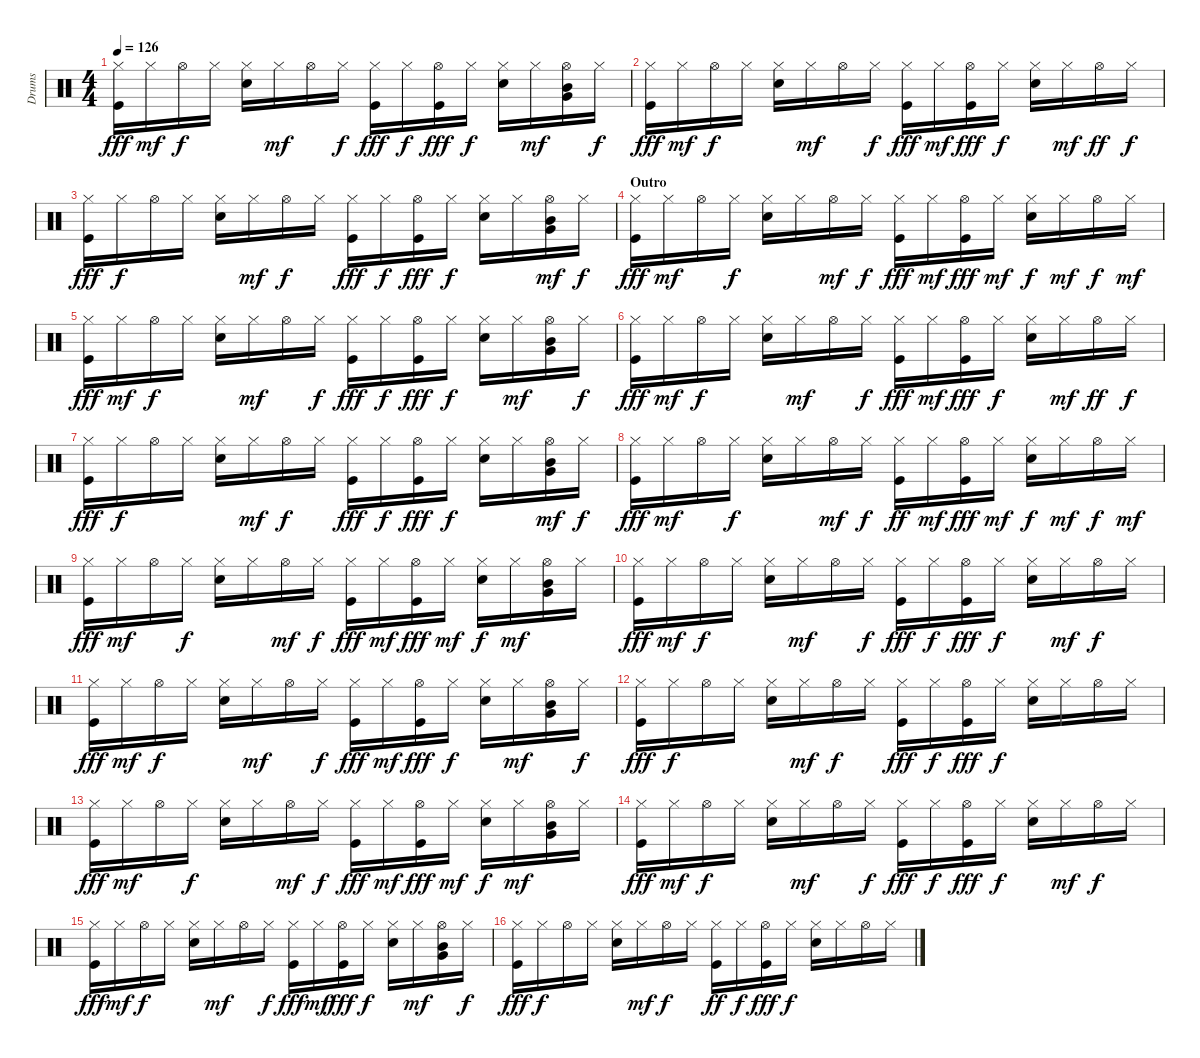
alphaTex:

\track ("Drums" "Drums") {instrument percussion}
\staff {score}
\articulation defaults
\ts (4 4)
\tempo 126
\clef neutral
\ks c
("Kick (hit)" "Hi-Hat (closed)").16{dy fff} "Hi-Hat (closed)".16{dy mf} "Hi-Hat (open)".16{dy f} "Hi-Hat (closed)".16 ("Electric Snare (hit)" "Hi-Hat (closed)").16 "Hi-Hat (closed)".16{dy mf} "Hi-Hat (open)".16 "Hi-Hat (closed)".16{dy f} ("Kick (hit)" "Hi-Hat (closed)").16{dy fff} "Hi-Hat (closed)".16{dy f} ("Kick (hit)" "Hi-Hat (open)").16{dy fff} "Hi-Hat (closed)".16{dy f} ("Electric Snare (hit)" "Hi-Hat (closed)").16 "Hi-Hat (closed)".16{dy mf} ("Very Low Tom (hit)" "Hi-Hat (open)" "Mid Tom (hit)").16 "Hi-Hat (closed)".16{dy f} |
("Kick (hit)" "Hi-Hat (closed)").16{dy fff} "Hi-Hat (closed)".16{dy mf} "Hi-Hat (open)".16{dy f} "Hi-Hat (closed)".16 ("Electric Snare (hit)" "Hi-Hat (closed)").16 "Hi-Hat (closed)".16{dy mf} "Hi-Hat (open)".16 "Hi-Hat (closed)".16{dy f} ("Kick (hit)" "Hi-Hat (closed)").16{dy fff} "Hi-Hat (closed)".16{dy mf} ("Kick (hit)" "Hi-Hat (open)").16{dy fff} "Hi-Hat (closed)".16{dy f} ("Electric Snare (hit)" "Hi-Hat (closed)").16 "Hi-Hat (closed)".16{dy mf} "Hi-Hat (open)".16{dy ff} "Hi-Hat (closed)".16{dy f} |
("Kick (hit)" "Hi-Hat (closed)").16{dy fff} "Hi-Hat (closed)".16{dy f} "Hi-Hat (open)".16 "Hi-Hat (closed)".16 ("Electric Snare (hit)" "Hi-Hat (closed)").16 "Hi-Hat (closed)".16{dy mf} "Hi-Hat (open)".16{dy f} "Hi-Hat (closed)".16 ("Kick (hit)" "Hi-Hat (closed)").16{dy fff} "Hi-Hat (closed)".16{dy f} ("Kick (hit)" "Hi-Hat (open)").16{dy fff} "Hi-Hat (closed)".16{dy f} ("Electric Snare (hit)" "Hi-Hat (closed)").16 "Hi-Hat (closed)".16 ("Very Low Tom (hit)" "Hi-Hat (open)" "Mid Tom (hit)").16{dy mf} "Hi-Hat (closed)".16{dy f} |
\section ("" "Outro")
("Kick (hit)" "Hi-Hat (closed)").16{dy fff} "Hi-Hat (closed)".16{dy mf} "Hi-Hat (open)".16 "Hi-Hat (closed)".16{dy f} ("Electric Snare (hit)" "Hi-Hat (closed)").16 "Hi-Hat (closed)".16 "Hi-Hat (open)".16{dy mf} "Hi-Hat (closed)".16{dy f} ("Kick (hit)" "Hi-Hat (closed)").16{dy fff} "Hi-Hat (closed)".16{dy mf} ("Kick (hit)" "Hi-Hat (open)").16{dy fff} "Hi-Hat (closed)".16{dy mf} ("Electric Snare (hit)" "Hi-Hat (closed)").16{dy f} "Hi-Hat (closed)".16{dy mf} "Hi-Hat (open)".16{dy f} "Hi-Hat (closed)".16{dy mf} |
("Kick (hit)" "Hi-Hat (closed)").16{dy fff} "Hi-Hat (closed)".16{dy mf} "Hi-Hat (open)".16{dy f} "Hi-Hat (closed)".16 ("Electric Snare (hit)" "Hi-Hat (closed)").16 "Hi-Hat (closed)".16{dy mf} "Hi-Hat (open)".16 "Hi-Hat (closed)".16{dy f} ("Kick (hit)" "Hi-Hat (closed)").16{dy fff} "Hi-Hat (closed)".16{dy f} ("Kick (hit)" "Hi-Hat (open)").16{dy fff} "Hi-Hat (closed)".16{dy f} ("Electric Snare (hit)" "Hi-Hat (closed)").16 "Hi-Hat (closed)".16{dy mf} ("Very Low Tom (hit)" "Hi-Hat (open)" "Mid Tom (hit)").16 "Hi-Hat (closed)".16{dy f} |
("Kick (hit)" "Hi-Hat (closed)").16{dy fff} "Hi-Hat (closed)".16{dy mf} "Hi-Hat (open)".16{dy f} "Hi-Hat (closed)".16 ("Electric Snare (hit)" "Hi-Hat (closed)").16 "Hi-Hat (closed)".16{dy mf} "Hi-Hat (open)".16 "Hi-Hat (closed)".16{dy f} ("Kick (hit)" "Hi-Hat (closed)").16{dy fff} "Hi-Hat (closed)".16{dy mf} ("Kick (hit)" "Hi-Hat (open)").16{dy fff} "Hi-Hat (closed)".16{dy f} ("Electric Snare (hit)" "Hi-Hat (closed)").16 "Hi-Hat (closed)".16{dy mf} "Hi-Hat (open)".16{dy ff} "Hi-Hat (closed)".16{dy f} |
("Kick (hit)" "Hi-Hat (closed)").16{dy fff} "Hi-Hat (closed)".16{dy f} "Hi-Hat (open)".16 "Hi-Hat (closed)".16 ("Electric Snare (hit)" "Hi-Hat (closed)").16 "Hi-Hat (closed)".16{dy mf} "Hi-Hat (open)".16{dy f} "Hi-Hat (closed)".16 ("Kick (hit)" "Hi-Hat (closed)").16{dy fff} "Hi-Hat (closed)".16{dy f} ("Kick (hit)" "Hi-Hat (open)").16{dy fff} "Hi-Hat (closed)".16{dy f} ("Electric Snare (hit)" "Hi-Hat (closed)").16 "Hi-Hat (closed)".16 ("Very Low Tom (hit)" "Hi-Hat (open)" "Mid Tom (hit)").16{dy mf} "Hi-Hat (closed)".16{dy f} |
("Kick (hit)" "Hi-Hat (closed)").16{dy fff} "Hi-Hat (closed)".16{dy mf} "Hi-Hat (open)".16 "Hi-Hat (closed)".16{dy f} ("Electric Snare (hit)" "Hi-Hat (closed)").16 "Hi-Hat (closed)".16 "Hi-Hat (open)".16{dy mf} "Hi-Hat (closed)".16{dy f} ("Kick (hit)" "Hi-Hat (closed)").16{dy ff} "Hi-Hat (closed)".16{dy mf} ("Kick (hit)" "Hi-Hat (open)").16{dy fff} "Hi-Hat (closed)".16{dy mf} ("Electric Snare (hit)" "Hi-Hat (closed)").16{dy f} "Hi-Hat (closed)".16{dy mf} "Hi-Hat (open)".16{dy f} "Hi-Hat (closed)".16{dy mf} |
("Kick (hit)" "Hi-Hat (closed)").16{dy fff} "Hi-Hat (closed)".16{dy mf} "Hi-Hat (open)".16 "Hi-Hat (closed)".16{dy f} ("Electric Snare (hit)" "Hi-Hat (closed)").16 "Hi-Hat (closed)".16 "Hi-Hat (open)".16{dy mf} "Hi-Hat (closed)".16{dy f} ("Kick (hit)" "Hi-Hat (closed)").16{dy fff} "Hi-Hat (closed)".16{dy mf} ("Kick (hit)" "Hi-Hat (open)").16{dy fff} "Hi-Hat (closed)".16{dy mf} ("Electric Snare (hit)" "Hi-Hat (closed)").16{dy f} "Hi-Hat (closed)".16{dy mf} ("Very Low Tom (hit)" "Hi-Hat (open)" "Mid Tom (hit)").16 "Hi-Hat (closed)".16 |
("Kick (hit)" "Hi-Hat (closed)").16{dy fff} "Hi-Hat (closed)".16{dy mf} "Hi-Hat (open)".16{dy f} "Hi-Hat (closed)".16 ("Electric Snare (hit)" "Hi-Hat (closed)").16 "Hi-Hat (closed)".16{dy mf} "Hi-Hat (open)".16 "Hi-Hat (closed)".16{dy f} ("Kick (hit)" "Hi-Hat (closed)").16{dy fff} "Hi-Hat (closed)".16{dy f} ("Kick (hit)" "Hi-Hat (open)").16{dy fff} "Hi-Hat (closed)".16{dy f} ("Electric Snare (hit)" "Hi-Hat (closed)").16 "Hi-Hat (closed)".16{dy mf} "Hi-Hat (open)".16{dy f} "Hi-Hat (closed)".16 |
("Kick (hit)" "Hi-Hat (closed)").16{dy fff} "Hi-Hat (closed)".16{dy mf} "Hi-Hat (open)".16{dy f} "Hi-Hat (closed)".16 ("Electric Snare (hit)" "Hi-Hat (closed)").16 "Hi-Hat (closed)".16{dy mf} "Hi-Hat (open)".16 "Hi-Hat (closed)".16{dy f} ("Kick (hit)" "Hi-Hat (closed)").16{dy fff} "Hi-Hat (closed)".16{dy mf} ("Kick (hit)" "Hi-Hat (open)").16{dy fff} "Hi-Hat (closed)".16{dy f} ("Electric Snare (hit)" "Hi-Hat (closed)").16 "Hi-Hat (closed)".16{dy mf} ("Very Low Tom (hit)" "Hi-Hat (open)" "Mid Tom (hit)").16 "Hi-Hat (closed)".16{dy f} |
("Kick (hit)" "Hi-Hat (closed)").16{dy fff} "Hi-Hat (closed)".16{dy f} "Hi-Hat (open)".16 "Hi-Hat (closed)".16 ("Electric Snare (hit)" "Hi-Hat (closed)").16 "Hi-Hat (closed)".16{dy mf} "Hi-Hat (open)".16{dy f} "Hi-Hat (closed)".16 ("Kick (hit)" "Hi-Hat (closed)").16{dy fff} "Hi-Hat (closed)".16{dy f} ("Kick (hit)" "Hi-Hat (open)").16{dy fff} "Hi-Hat (closed)".16{dy f} ("Electric Snare (hit)" "Hi-Hat (closed)").16 "Hi-Hat (closed)".16 "Hi-Hat (open)".16 "Hi-Hat (closed)".16 |
("Kick (hit)" "Hi-Hat (closed)").16{dy fff} "Hi-Hat (closed)".16{dy mf} "Hi-Hat (open)".16 "Hi-Hat (closed)".16{dy f} ("Electric Snare (hit)" "Hi-Hat (closed)").16 "Hi-Hat (closed)".16 "Hi-Hat (open)".16{dy mf} "Hi-Hat (closed)".16{dy f} ("Kick (hit)" "Hi-Hat (closed)").16{dy fff} "Hi-Hat (closed)".16{dy mf} ("Kick (hit)" "Hi-Hat (open)").16{dy fff} "Hi-Hat (closed)".16{dy mf} ("Electric Snare (hit)" "Hi-Hat (closed)").16{dy f} "Hi-Hat (closed)".16{dy mf} ("Very Low Tom (hit)" "Hi-Hat (open)" "Mid Tom (hit)").16 "Hi-Hat (closed)".16 |
("Kick (hit)" "Hi-Hat (closed)").16{dy fff} "Hi-Hat (closed)".16{dy mf} "Hi-Hat (open)".16{dy f} "Hi-Hat (closed)".16 ("Electric Snare (hit)" "Hi-Hat (closed)").16 "Hi-Hat (closed)".16{dy mf} "Hi-Hat (open)".16 "Hi-Hat (closed)".16{dy f} ("Kick (hit)" "Hi-Hat (closed)").16{dy fff} "Hi-Hat (closed)".16{dy f} ("Kick (hit)" "Hi-Hat (open)").16{dy fff} "Hi-Hat (closed)".16{dy f} ("Electric Snare (hit)" "Hi-Hat (closed)").16 "Hi-Hat (closed)".16{dy mf} "Hi-Hat (open)".16{dy f} "Hi-Hat (closed)".16 |
("Kick (hit)" "Hi-Hat (closed)").16{dy fff} "Hi-Hat (closed)".16{dy mf} "Hi-Hat (open)".16{dy f} "Hi-Hat (closed)".16 ("Electric Snare (hit)" "Hi-Hat (closed)").16 "Hi-Hat (closed)".16{dy mf} "Hi-Hat (open)".16 "Hi-Hat (closed)".16{dy f} ("Kick (hit)" "Hi-Hat (closed)").16{dy fff} "Hi-Hat (closed)".16{dy mf} ("Kick (hit)" "Hi-Hat (open)").16{dy fff} "Hi-Hat (closed)".16{dy f} ("Electric Snare (hit)" "Hi-Hat (closed)").16 "Hi-Hat (closed)".16{dy mf} ("Very Low Tom (hit)" "Hi-Hat (open)" "Mid Tom (hit)").16 "Hi-Hat (closed)".16{dy f} |
("Kick (hit)" "Hi-Hat (closed)").16{dy fff} "Hi-Hat (closed)".16{dy f} "Hi-Hat (open)".16 "Hi-Hat (closed)".16 ("Electric Snare (hit)" "Hi-Hat (closed)").16 "Hi-Hat (closed)".16{dy mf} "Hi-Hat (open)".16{dy f} "Hi-Hat (closed)".16 ("Kick (hit)" "Hi-Hat (closed)").16{dy ff} "Hi-Hat (closed)".16{dy f} ("Kick (hit)" "Hi-Hat (open)").16{dy fff} "Hi-Hat (closed)".16{dy f} ("Electric Snare (hit)" "Hi-Hat (closed)").16 "Hi-Hat (closed)".16 "Hi-Hat (open)".16 "Hi-Hat (closed)".16
